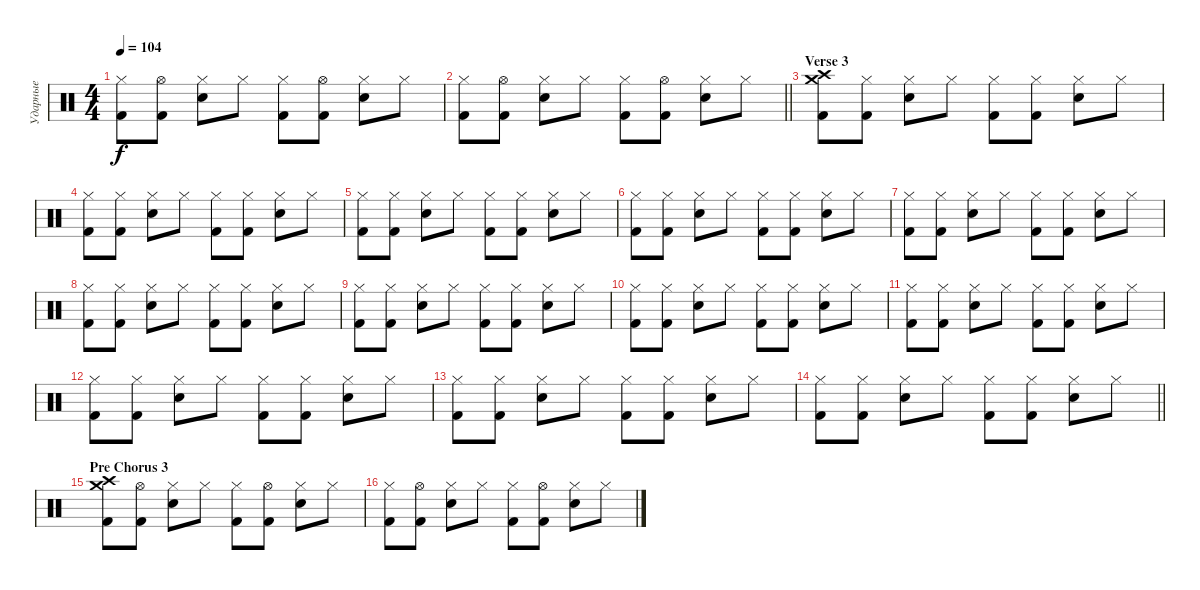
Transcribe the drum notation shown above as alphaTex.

\track ("Ударные" "Ударные") {instrument percussion}
\staff {score}
\articulation defaults
\ts (4 4)
\tempo 104
\clef neutral
\ks c
("Hi-Hat (closed)" "Kick (hit) 2").8{dy f} ("Hi-Hat (open)" "Kick (hit) 2").8 ("Hi-Hat (closed)" "Electric Snare (hit)").8 "Hi-Hat (closed)".8 ("Hi-Hat (closed)" "Kick (hit) 2").8 ("Hi-Hat (open)" "Kick (hit) 2").8 ("Hi-Hat (closed)" "Electric Snare (hit)").8 "Hi-Hat (closed)".8 |
\barLineRight lightlight
("Hi-Hat (closed)" "Kick (hit) 2").8 ("Hi-Hat (open)" "Kick (hit) 2").8 ("Hi-Hat (closed)" "Electric Snare (hit)").8 "Hi-Hat (closed)".8 ("Hi-Hat (closed)" "Kick (hit) 2").8 ("Hi-Hat (open)" "Kick (hit) 2").8 ("Hi-Hat (closed)" "Electric Snare (hit)").8 "Hi-Hat (closed)".8 |
\section ("" "Verse 3")
("Crash high (hit)" "Crash medium (hit)" "Kick (hit) 2").8 ("Hi-Hat (closed)" "Kick (hit) 2").8 ("Hi-Hat (closed)" "Electric Snare (hit)").8 "Hi-Hat (closed)".8 ("Hi-Hat (closed)" "Kick (hit) 2").8 ("Hi-Hat (closed)" "Kick (hit) 2").8 ("Hi-Hat (closed)" "Electric Snare (hit)").8 "Hi-Hat (closed)".8 |
("Hi-Hat (closed)" "Kick (hit) 2").8 ("Hi-Hat (closed)" "Kick (hit) 2").8 ("Hi-Hat (closed)" "Electric Snare (hit)").8 "Hi-Hat (closed)".8 ("Hi-Hat (closed)" "Kick (hit) 2").8 ("Hi-Hat (closed)" "Kick (hit) 2").8 ("Hi-Hat (closed)" "Electric Snare (hit)").8 "Hi-Hat (closed)".8 |
("Hi-Hat (closed)" "Kick (hit) 2").8 ("Hi-Hat (closed)" "Kick (hit) 2").8 ("Hi-Hat (closed)" "Electric Snare (hit)").8 "Hi-Hat (closed)".8 ("Hi-Hat (closed)" "Kick (hit) 2").8 ("Hi-Hat (closed)" "Kick (hit) 2").8 ("Hi-Hat (closed)" "Electric Snare (hit)").8 "Hi-Hat (closed)".8 |
("Hi-Hat (closed)" "Kick (hit) 2").8 ("Hi-Hat (closed)" "Kick (hit) 2").8 ("Hi-Hat (closed)" "Electric Snare (hit)").8 "Hi-Hat (closed)".8 ("Hi-Hat (closed)" "Kick (hit) 2").8 ("Hi-Hat (closed)" "Kick (hit) 2").8 ("Hi-Hat (closed)" "Electric Snare (hit)").8 "Hi-Hat (closed)".8 |
("Hi-Hat (closed)" "Kick (hit) 2").8 ("Hi-Hat (closed)" "Kick (hit) 2").8 ("Hi-Hat (closed)" "Electric Snare (hit)").8 "Hi-Hat (closed)".8 ("Hi-Hat (closed)" "Kick (hit) 2").8 ("Hi-Hat (closed)" "Kick (hit) 2").8 ("Hi-Hat (closed)" "Electric Snare (hit)").8 "Hi-Hat (closed)".8 |
("Hi-Hat (closed)" "Kick (hit) 2").8 ("Hi-Hat (closed)" "Kick (hit) 2").8 ("Hi-Hat (closed)" "Electric Snare (hit)").8 "Hi-Hat (closed)".8 ("Hi-Hat (closed)" "Kick (hit) 2").8 ("Hi-Hat (closed)" "Kick (hit) 2").8 ("Hi-Hat (closed)" "Electric Snare (hit)").8 "Hi-Hat (closed)".8 |
("Hi-Hat (closed)" "Kick (hit) 2").8 ("Hi-Hat (closed)" "Kick (hit) 2").8 ("Hi-Hat (closed)" "Electric Snare (hit)").8 "Hi-Hat (closed)".8 ("Hi-Hat (closed)" "Kick (hit) 2").8 ("Hi-Hat (closed)" "Kick (hit) 2").8 ("Hi-Hat (closed)" "Electric Snare (hit)").8 "Hi-Hat (closed)".8 |
("Hi-Hat (closed)" "Kick (hit) 2").8 ("Hi-Hat (closed)" "Kick (hit) 2").8 ("Hi-Hat (closed)" "Electric Snare (hit)").8 "Hi-Hat (closed)".8 ("Hi-Hat (closed)" "Kick (hit) 2").8 ("Hi-Hat (closed)" "Kick (hit) 2").8 ("Hi-Hat (closed)" "Electric Snare (hit)").8 "Hi-Hat (closed)".8 |
("Hi-Hat (closed)" "Kick (hit) 2").8 ("Hi-Hat (closed)" "Kick (hit) 2").8 ("Hi-Hat (closed)" "Electric Snare (hit)").8 "Hi-Hat (closed)".8 ("Hi-Hat (closed)" "Kick (hit) 2").8 ("Hi-Hat (closed)" "Kick (hit) 2").8 ("Hi-Hat (closed)" "Electric Snare (hit)").8 "Hi-Hat (closed)".8 |
("Hi-Hat (closed)" "Kick (hit) 2").8 ("Hi-Hat (closed)" "Kick (hit) 2").8 ("Hi-Hat (closed)" "Electric Snare (hit)").8 "Hi-Hat (closed)".8 ("Hi-Hat (closed)" "Kick (hit) 2").8 ("Hi-Hat (closed)" "Kick (hit) 2").8 ("Hi-Hat (closed)" "Electric Snare (hit)").8 "Hi-Hat (closed)".8 |
("Hi-Hat (closed)" "Kick (hit) 2").8 ("Hi-Hat (closed)" "Kick (hit) 2").8 ("Hi-Hat (closed)" "Electric Snare (hit)").8 "Hi-Hat (closed)".8 ("Hi-Hat (closed)" "Kick (hit) 2").8 ("Hi-Hat (closed)" "Kick (hit) 2").8 ("Hi-Hat (closed)" "Electric Snare (hit)").8 "Hi-Hat (closed)".8 |
\barLineRight lightlight
("Hi-Hat (closed)" "Kick (hit) 2").8 ("Hi-Hat (closed)" "Kick (hit) 2").8 ("Hi-Hat (closed)" "Electric Snare (hit)").8 "Hi-Hat (closed)".8 ("Hi-Hat (closed)" "Kick (hit) 2").8 ("Hi-Hat (closed)" "Kick (hit) 2").8 ("Hi-Hat (closed)" "Electric Snare (hit)").8 "Hi-Hat (closed)".8 |
\section ("" "Pre Chorus 3")
("Crash high (hit)" "Crash medium (hit)" "Kick (hit) 2").8 ("Hi-Hat (open)" "Kick (hit) 2").8 ("Hi-Hat (closed)" "Electric Snare (hit)").8 "Hi-Hat (closed)".8 ("Hi-Hat (closed)" "Kick (hit) 2").8 ("Hi-Hat (open)" "Kick (hit) 2").8 ("Hi-Hat (closed)" "Electric Snare (hit)").8 "Hi-Hat (closed)".8 |
("Hi-Hat (closed)" "Kick (hit) 2").8 ("Hi-Hat (open)" "Kick (hit) 2").8 ("Hi-Hat (closed)" "Electric Snare (hit)").8 "Hi-Hat (closed)".8 ("Hi-Hat (closed)" "Kick (hit) 2").8 ("Hi-Hat (open)" "Kick (hit) 2").8 ("Hi-Hat (closed)" "Electric Snare (hit)").8 "Hi-Hat (closed)".8
